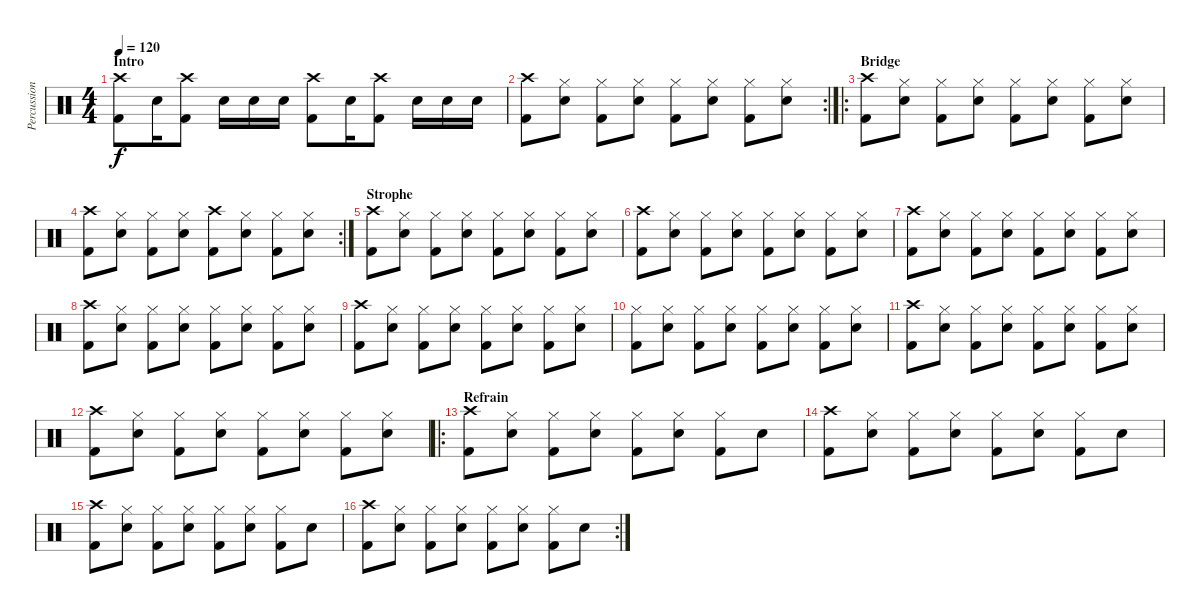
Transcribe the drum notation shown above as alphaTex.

\track ("Percussion" "Percussion") {instrument percussion}
\staff {score}
\articulation defaults
\ts (4 4)
\section ("" "Intro")
\tempo 120
\clef neutral
\ks c
("Crash high (hit)" "Kick (hit) 2").8{dy f} "Snare (hit) 2".16 ("Crash high (hit)" "Kick (hit) 2").8 "Snare (hit) 2".16 "Snare (hit) 2".16 "Snare (hit) 2".16 ("Crash high (hit)" "Kick (hit) 2").8 "Snare (hit) 2".16 ("Crash high (hit)" "Kick (hit) 2").8 "Snare (hit) 2".16 "Snare (hit) 2".16 "Snare (hit) 2".16 |
\rc 2
("Crash high (hit)" "Kick (hit) 2").8 ("Hi-Hat (closed)" "Snare (hit) 2").8 ("Hi-Hat (closed)" "Kick (hit) 2").8 ("Hi-Hat (closed)" "Snare (hit) 2").8 ("Hi-Hat (closed)" "Kick (hit) 2").8 ("Hi-Hat (closed)" "Snare (hit) 2").8 ("Hi-Hat (closed)" "Kick (hit) 2").8 ("Hi-Hat (closed)" "Snare (hit) 2").8 |
\ro
\section ("" "Bridge")
("Crash high (hit)" "Kick (hit) 2").8 ("Hi-Hat (closed)" "Snare (hit) 2").8 ("Hi-Hat (closed)" "Kick (hit) 2").8 ("Hi-Hat (closed)" "Snare (hit) 2").8 ("Hi-Hat (closed)" "Kick (hit) 2").8 ("Hi-Hat (closed)" "Snare (hit) 2").8 ("Hi-Hat (closed)" "Kick (hit) 2").8 ("Hi-Hat (closed)" "Snare (hit) 2").8 |
\rc 2
("Crash high (hit)" "Kick (hit) 2").8 ("Hi-Hat (closed)" "Snare (hit) 2").8 ("Hi-Hat (closed)" "Kick (hit) 2").8 ("Hi-Hat (closed)" "Snare (hit) 2").8 ("Crash high (hit)" "Kick (hit) 2").8 ("Hi-Hat (closed)" "Snare (hit) 2").8 ("Hi-Hat (closed)" "Kick (hit) 2").8 ("Hi-Hat (closed)" "Snare (hit) 2").8 |
\section ("" "Strophe")
("Crash high (hit)" "Kick (hit) 2").8 ("Hi-Hat (closed)" "Snare (hit) 2").8 ("Hi-Hat (closed)" "Kick (hit) 2").8 ("Hi-Hat (closed)" "Snare (hit) 2").8 ("Hi-Hat (closed)" "Kick (hit) 2").8 ("Hi-Hat (closed)" "Snare (hit) 2").8 ("Hi-Hat (closed)" "Kick (hit) 2").8 ("Hi-Hat (closed)" "Snare (hit) 2").8 |
("Crash high (hit)" "Kick (hit) 2").8 ("Hi-Hat (closed)" "Snare (hit) 2").8 ("Hi-Hat (closed)" "Kick (hit) 2").8 ("Hi-Hat (closed)" "Snare (hit) 2").8 ("Hi-Hat (closed)" "Kick (hit) 2").8 ("Hi-Hat (closed)" "Snare (hit) 2").8 ("Hi-Hat (closed)" "Kick (hit) 2").8 ("Hi-Hat (closed)" "Snare (hit) 2").8 |
("Crash high (hit)" "Kick (hit) 2").8 ("Hi-Hat (closed)" "Snare (hit) 2").8 ("Hi-Hat (closed)" "Kick (hit) 2").8 ("Hi-Hat (closed)" "Snare (hit) 2").8 ("Hi-Hat (closed)" "Kick (hit) 2").8 ("Hi-Hat (closed)" "Snare (hit) 2").8 ("Hi-Hat (closed)" "Kick (hit) 2").8 ("Hi-Hat (closed)" "Snare (hit) 2").8 |
("Crash high (hit)" "Kick (hit) 2").8 ("Hi-Hat (closed)" "Snare (hit) 2").8 ("Hi-Hat (closed)" "Kick (hit) 2").8 ("Hi-Hat (closed)" "Snare (hit) 2").8 ("Hi-Hat (closed)" "Kick (hit) 2").8 ("Hi-Hat (closed)" "Snare (hit) 2").8 ("Hi-Hat (closed)" "Kick (hit) 2").8 ("Hi-Hat (closed)" "Snare (hit) 2").8 |
("Crash high (hit)" "Kick (hit) 2").8 ("Hi-Hat (closed)" "Snare (hit) 2").8 ("Hi-Hat (closed)" "Kick (hit) 2").8 ("Hi-Hat (closed)" "Snare (hit) 2").8 ("Hi-Hat (closed)" "Kick (hit) 2").8 ("Hi-Hat (closed)" "Snare (hit) 2").8 ("Hi-Hat (closed)" "Kick (hit) 2").8 ("Hi-Hat (closed)" "Snare (hit) 2").8 |
("Hi-Hat (closed)" "Kick (hit) 2").8 ("Hi-Hat (closed)" "Snare (hit) 2").8 ("Hi-Hat (closed)" "Kick (hit) 2").8 ("Hi-Hat (closed)" "Snare (hit) 2").8 ("Hi-Hat (closed)" "Kick (hit) 2").8 ("Hi-Hat (closed)" "Snare (hit) 2").8 ("Hi-Hat (closed)" "Kick (hit) 2").8 ("Hi-Hat (closed)" "Snare (hit) 2").8 |
("Crash high (hit)" "Kick (hit) 2").8 ("Hi-Hat (closed)" "Snare (hit) 2").8 ("Hi-Hat (closed)" "Kick (hit) 2").8 ("Hi-Hat (closed)" "Snare (hit) 2").8 ("Hi-Hat (closed)" "Kick (hit) 2").8 ("Hi-Hat (closed)" "Snare (hit) 2").8 ("Hi-Hat (closed)" "Kick (hit) 2").8 ("Hi-Hat (closed)" "Snare (hit) 2").8 |
("Crash high (hit)" "Kick (hit) 2").8 ("Hi-Hat (closed)" "Snare (hit) 2").8 ("Hi-Hat (closed)" "Kick (hit) 2").8 ("Hi-Hat (closed)" "Snare (hit) 2").8 ("Hi-Hat (closed)" "Kick (hit) 2").8 ("Hi-Hat (closed)" "Snare (hit) 2").8 ("Hi-Hat (closed)" "Kick (hit) 2").8 ("Hi-Hat (closed)" "Snare (hit) 2").8 |
\ro
\section ("" "Refrain")
("Crash high (hit)" "Kick (hit) 2").8 ("Hi-Hat (closed)" "Snare (hit) 2").8 ("Hi-Hat (closed)" "Kick (hit) 2").8 ("Hi-Hat (closed)" "Snare (hit) 2").8 ("Hi-Hat (closed)" "Kick (hit) 2").8 ("Hi-Hat (closed)" "Snare (hit) 2").8 ("Hi-Hat (closed)" "Kick (hit) 2").8 "Snare (hit) 2".8 |
("Crash high (hit)" "Kick (hit) 2").8 ("Hi-Hat (closed)" "Snare (hit) 2").8 ("Hi-Hat (closed)" "Kick (hit) 2").8 ("Hi-Hat (closed)" "Snare (hit) 2").8 ("Hi-Hat (closed)" "Kick (hit) 2").8 ("Hi-Hat (closed)" "Snare (hit) 2").8 ("Hi-Hat (closed)" "Kick (hit) 2").8 "Snare (hit) 2".8 |
("Crash high (hit)" "Kick (hit) 2").8 ("Hi-Hat (closed)" "Snare (hit) 2").8 ("Hi-Hat (closed)" "Kick (hit) 2").8 ("Hi-Hat (closed)" "Snare (hit) 2").8 ("Hi-Hat (closed)" "Kick (hit) 2").8 ("Hi-Hat (closed)" "Snare (hit) 2").8 ("Hi-Hat (closed)" "Kick (hit) 2").8 "Snare (hit) 2".8 |
\rc 2
("Crash high (hit)" "Kick (hit) 2").8 ("Hi-Hat (closed)" "Snare (hit) 2").8 ("Hi-Hat (closed)" "Kick (hit) 2").8 ("Hi-Hat (closed)" "Snare (hit) 2").8 ("Hi-Hat (closed)" "Kick (hit) 2").8 ("Hi-Hat (closed)" "Snare (hit) 2").8 ("Hi-Hat (closed)" "Kick (hit) 2").8 "Snare (hit) 2".8
